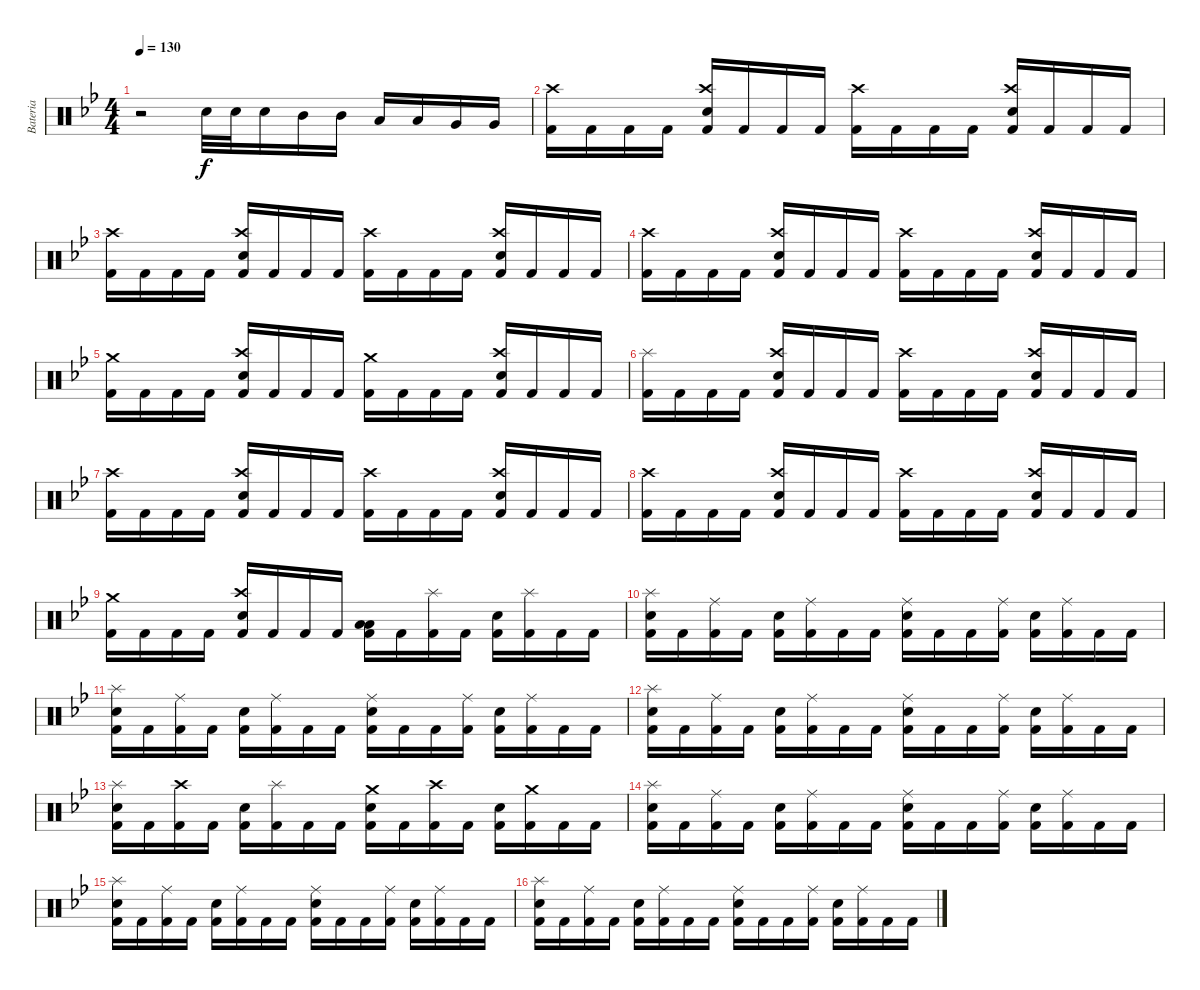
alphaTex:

\track ("Bateria" "Bateria") {instrument percussion}
\staff {score}
\articulation defaults
\ts (4 4)
\tempo 130
\clef neutral
\ks gminor
r.2{dy f} "Electric Snare (hit)".32 "Electric Snare (hit)".32 "Electric Snare (hit)".16 "Mid Tom (hit)".16 "Mid Tom (hit)".16 "Low Tom (hit)".16 "Low Tom (hit)".16 "Very Low Tom (hit)".16 "Very Low Tom (hit)".16 |
("Crash high (hit)" "Kick (hit) 2").16 "Kick (hit) 2".16 "Kick (hit) 2".16 "Kick (hit) 2".16 ("Crash high (hit)" "Electric Snare (hit)" "Kick (hit) 2").16 "Kick (hit) 2".16 "Kick (hit) 2".16 "Kick (hit) 2".16 ("Crash high (hit)" "Kick (hit) 2").16 "Kick (hit) 2".16 "Kick (hit) 2".16 "Kick (hit) 2".16 ("Crash high (hit)" "Electric Snare (hit)" "Kick (hit) 2").16 "Kick (hit) 2".16 "Kick (hit) 2".16 "Kick (hit) 2".16 |
("Crash high (hit)" "Kick (hit) 2").16 "Kick (hit) 2".16 "Kick (hit) 2".16 "Kick (hit) 2".16 ("Crash high (hit)" "Electric Snare (hit)" "Kick (hit) 2").16 "Kick (hit) 2".16 "Kick (hit) 2".16 "Kick (hit) 2".16 ("Crash high (hit)" "Kick (hit) 2").16 "Kick (hit) 2".16 "Kick (hit) 2".16 "Kick (hit) 2".16 ("Crash high (hit)" "Electric Snare (hit)" "Kick (hit) 2").16 "Kick (hit) 2".16 "Kick (hit) 2".16 "Kick (hit) 2".16 |
("Crash high (hit)" "Kick (hit) 2").16 "Kick (hit) 2".16 "Kick (hit) 2".16 "Kick (hit) 2".16 ("Crash high (hit)" "Electric Snare (hit)" "Kick (hit) 2").16 "Kick (hit) 2".16 "Kick (hit) 2".16 "Kick (hit) 2".16 ("Crash high (hit)" "Kick (hit) 2").16 "Kick (hit) 2".16 "Kick (hit) 2".16 "Kick (hit) 2".16 ("Crash high (hit)" "Electric Snare (hit)" "Kick (hit) 2").16 "Kick (hit) 2".16 "Kick (hit) 2".16 "Kick (hit) 2".16 |
("Crash medium (hit)" "Kick (hit) 2").16 "Kick (hit) 2".16 "Kick (hit) 2".16 "Kick (hit) 2".16 ("Crash high (hit)" "Electric Snare (hit)" "Kick (hit) 2").16 "Kick (hit) 2".16 "Kick (hit) 2".16 "Kick (hit) 2".16 ("Crash medium (hit)" "Kick (hit) 2").16 "Kick (hit) 2".16 "Kick (hit) 2".16 "Kick (hit) 2".16 ("Crash high (hit)" "Electric Snare (hit)" "Kick (hit) 2").16 "Kick (hit) 2".16 "Kick (hit) 2".16 "Kick (hit) 2".16 |
("Splash (hit)" "Kick (hit) 2").16 "Kick (hit) 2".16 "Kick (hit) 2".16 "Kick (hit) 2".16 ("Crash high (hit)" "Electric Snare (hit)" "Kick (hit) 2").16 "Kick (hit) 2".16 "Kick (hit) 2".16 "Kick (hit) 2".16 ("Crash high (hit)" "Kick (hit) 2").16 "Kick (hit) 2".16 "Kick (hit) 2".16 "Kick (hit) 2".16 ("Crash high (hit)" "Electric Snare (hit)" "Kick (hit) 2").16 "Kick (hit) 2".16 "Kick (hit) 2".16 "Kick (hit) 2".16 |
("Crash high (hit)" "Kick (hit) 2").16 "Kick (hit) 2".16 "Kick (hit) 2".16 "Kick (hit) 2".16 ("Crash high (hit)" "Electric Snare (hit)" "Kick (hit) 2").16 "Kick (hit) 2".16 "Kick (hit) 2".16 "Kick (hit) 2".16 ("Crash high (hit)" "Kick (hit) 2").16 "Kick (hit) 2".16 "Kick (hit) 2".16 "Kick (hit) 2".16 ("Crash high (hit)" "Electric Snare (hit)" "Kick (hit) 2").16 "Kick (hit) 2".16 "Kick (hit) 2".16 "Kick (hit) 2".16 |
("Crash high (hit)" "Kick (hit) 2").16 "Kick (hit) 2".16 "Kick (hit) 2".16 "Kick (hit) 2".16 ("Crash high (hit)" "Electric Snare (hit)" "Kick (hit) 2").16 "Kick (hit) 2".16 "Kick (hit) 2".16 "Kick (hit) 2".16 ("Crash high (hit)" "Kick (hit) 2").16 "Kick (hit) 2".16 "Kick (hit) 2".16 "Kick (hit) 2".16 ("Crash high (hit)" "Electric Snare (hit)" "Kick (hit) 2").16 "Kick (hit) 2".16 "Kick (hit) 2".16 "Kick (hit) 2".16 |
("Crash medium (hit)" "Kick (hit) 2").16 "Kick (hit) 2".16 "Kick (hit) 2".16 "Kick (hit) 2".16 ("Crash high (hit)" "Electric Snare (hit)" "Kick (hit) 2").16 "Kick (hit) 2".16 "Kick (hit) 2".16 "Kick (hit) 2".16 ("Low Tom (hit)" "Low Tom (hit)" "Kick (hit) 2").16 "Kick (hit) 2".16 ("Splash (hit)" "Kick (hit) 2").16 "Kick (hit) 2".16 ("Electric Snare (hit)" "Kick (hit) 2").16 ("Splash (hit)" "Kick (hit) 2").16 "Kick (hit) 2".16 "Kick (hit) 2".16 |
("Splash (hit)" "Electric Snare (hit)" "Kick (hit) 2").16 "Kick (hit) 2".16 ("Ride (middle)" "Kick (hit) 2").16 "Kick (hit) 2".16 ("Electric Snare (hit)" "Kick (hit) 2").16 ("Ride (middle)" "Kick (hit) 2").16 "Kick (hit) 2".16 "Kick (hit) 2".16 ("Ride (middle)" "Electric Snare (hit)" "Kick (hit) 2").16 "Kick (hit) 2".16 "Kick (hit) 2".16 ("Ride (middle)" "Kick (hit) 2").16 ("Electric Snare (hit)" "Kick (hit) 2").16 ("Ride (middle)" "Kick (hit) 2").16 "Kick (hit) 2".16 "Kick (hit) 2".16 |
("Splash (hit)" "Electric Snare (hit)" "Kick (hit) 2").16 "Kick (hit) 2".16 ("Ride (middle)" "Kick (hit) 2").16 "Kick (hit) 2".16 ("Electric Snare (hit)" "Kick (hit) 2").16 ("Ride (middle)" "Kick (hit) 2").16 "Kick (hit) 2".16 "Kick (hit) 2".16 ("Ride (middle)" "Electric Snare (hit)" "Kick (hit) 2").16 "Kick (hit) 2".16 "Kick (hit) 2".16 ("Ride (middle)" "Kick (hit) 2").16 ("Electric Snare (hit)" "Kick (hit) 2").16 ("Ride (middle)" "Kick (hit) 2").16 "Kick (hit) 2".16 "Kick (hit) 2".16 |
("Splash (hit)" "Electric Snare (hit)" "Kick (hit) 2").16 "Kick (hit) 2".16 ("Ride (middle)" "Kick (hit) 2").16 "Kick (hit) 2".16 ("Electric Snare (hit)" "Kick (hit) 2").16 ("Ride (middle)" "Kick (hit) 2").16 "Kick (hit) 2".16 "Kick (hit) 2".16 ("Ride (middle)" "Electric Snare (hit)" "Kick (hit) 2").16 "Kick (hit) 2".16 "Kick (hit) 2".16 ("Ride (middle)" "Kick (hit) 2").16 ("Electric Snare (hit)" "Kick (hit) 2").16 ("Ride (middle)" "Kick (hit) 2").16 "Kick (hit) 2".16 "Kick (hit) 2".16 |
("Splash (hit)" "Electric Snare (hit)" "Kick (hit) 2").16 "Kick (hit) 2".16 ("Crash high (hit)" "Kick (hit) 2").16 "Kick (hit) 2".16 ("Electric Snare (hit)" "Kick (hit) 2").16 ("Splash (hit)" "Kick (hit) 2").16 "Kick (hit) 2".16 "Kick (hit) 2".16 ("Crash medium (hit)" "Electric Snare (hit)" "Kick (hit) 2").16 "Kick (hit) 2".16 ("Crash high (hit)" "Kick (hit) 2").16 "Kick (hit) 2".16 ("Electric Snare (hit)" "Kick (hit) 2").16 ("Crash medium (hit)" "Kick (hit) 2").16 "Kick (hit) 2".16 "Kick (hit) 2".16 |
("Splash (hit)" "Electric Snare (hit)" "Kick (hit) 2").16 "Kick (hit) 2".16 ("Ride (middle)" "Kick (hit) 2").16 "Kick (hit) 2".16 ("Electric Snare (hit)" "Kick (hit) 2").16 ("Ride (middle)" "Kick (hit) 2").16 "Kick (hit) 2".16 "Kick (hit) 2".16 ("Ride (middle)" "Electric Snare (hit)" "Kick (hit) 2").16 "Kick (hit) 2".16 "Kick (hit) 2".16 ("Ride (middle)" "Kick (hit) 2").16 ("Electric Snare (hit)" "Kick (hit) 2").16 ("Ride (middle)" "Kick (hit) 2").16 "Kick (hit) 2".16 "Kick (hit) 2".16 |
("Splash (hit)" "Electric Snare (hit)" "Kick (hit) 2").16 "Kick (hit) 2".16 ("Ride (middle)" "Kick (hit) 2").16 "Kick (hit) 2".16 ("Electric Snare (hit)" "Kick (hit) 2").16 ("Ride (middle)" "Kick (hit) 2").16 "Kick (hit) 2".16 "Kick (hit) 2".16 ("Ride (middle)" "Electric Snare (hit)" "Kick (hit) 2").16 "Kick (hit) 2".16 "Kick (hit) 2".16 ("Ride (middle)" "Kick (hit) 2").16 ("Electric Snare (hit)" "Kick (hit) 2").16 ("Ride (middle)" "Kick (hit) 2").16 "Kick (hit) 2".16 "Kick (hit) 2".16 |
("Splash (hit)" "Electric Snare (hit)" "Kick (hit) 2").16 "Kick (hit) 2".16 ("Ride (middle)" "Kick (hit) 2").16 "Kick (hit) 2".16 ("Electric Snare (hit)" "Kick (hit) 2").16 ("Ride (middle)" "Kick (hit) 2").16 "Kick (hit) 2".16 "Kick (hit) 2".16 ("Ride (middle)" "Electric Snare (hit)" "Kick (hit) 2").16 "Kick (hit) 2".16 "Kick (hit) 2".16 ("Ride (middle)" "Kick (hit) 2").16 ("Electric Snare (hit)" "Kick (hit) 2").16 ("Ride (middle)" "Kick (hit) 2").16 "Kick (hit) 2".16 "Kick (hit) 2".16
